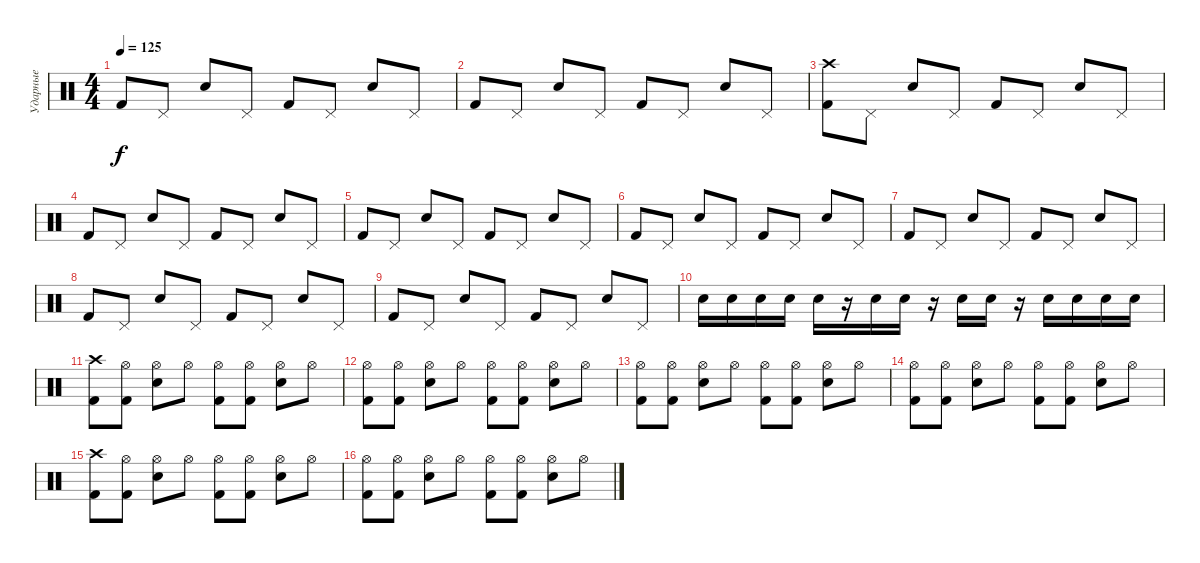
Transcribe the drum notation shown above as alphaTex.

\track ("Ударные" "Ударные") {instrument percussion}
\staff {score}
\articulation defaults
\ts (4 4)
\tempo 125
\clef neutral
\ks c "Kick (hit) 2".8{dy f} "Pedal Hi-Hat (hit)".8 "Snare (hit) 2".8 "Pedal Hi-Hat (hit)".8 "Kick (hit) 2".8 "Pedal Hi-Hat (hit)".8 "Snare (hit) 2".8 "Pedal Hi-Hat (hit)".8
|
"Kick (hit) 2".8 "Pedal Hi-Hat (hit)".8 "Snare (hit) 2".8 "Pedal Hi-Hat (hit)".8 "Kick (hit) 2".8 "Pedal Hi-Hat (hit)".8 "Snare (hit) 2".8 "Pedal Hi-Hat (hit)".8 |
("Crash high (hit)" "Kick (hit) 2").8 "Pedal Hi-Hat (hit)".8 "Snare (hit) 2".8 "Pedal Hi-Hat (hit)".8 "Kick (hit) 2".8 "Pedal Hi-Hat (hit)".8 "Snare (hit) 2".8 "Pedal Hi-Hat (hit)".8 |
"Kick (hit) 2".8 "Pedal Hi-Hat (hit)".8 "Snare (hit) 2".8 "Pedal Hi-Hat (hit)".8 "Kick (hit) 2".8 "Pedal Hi-Hat (hit)".8 "Snare (hit) 2".8 "Pedal Hi-Hat (hit)".8 |
"Kick (hit) 2".8 "Pedal Hi-Hat (hit)".8 "Snare (hit) 2".8 "Pedal Hi-Hat (hit)".8 "Kick (hit) 2".8 "Pedal Hi-Hat (hit)".8 "Snare (hit) 2".8 "Pedal Hi-Hat (hit)".8 |
"Kick (hit) 2".8 "Pedal Hi-Hat (hit)".8 "Snare (hit) 2".8 "Pedal Hi-Hat (hit)".8 "Kick (hit) 2".8 "Pedal Hi-Hat (hit)".8 "Snare (hit) 2".8 "Pedal Hi-Hat (hit)".8 |
"Kick (hit) 2".8 "Pedal Hi-Hat (hit)".8 "Snare (hit) 2".8 "Pedal Hi-Hat (hit)".8 "Kick (hit) 2".8 "Pedal Hi-Hat (hit)".8 "Snare (hit) 2".8 "Pedal Hi-Hat (hit)".8 |
"Kick (hit) 2".8 "Pedal Hi-Hat (hit)".8 "Snare (hit) 2".8 "Pedal Hi-Hat (hit)".8 "Kick (hit) 2".8 "Pedal Hi-Hat (hit)".8 "Snare (hit) 2".8 "Pedal Hi-Hat (hit)".8 |
"Kick (hit) 2".8 "Pedal Hi-Hat (hit)".8 "Snare (hit) 2".8 "Pedal Hi-Hat (hit)".8 "Kick (hit) 2".8 "Pedal Hi-Hat (hit)".8 "Snare (hit) 2".8 "Pedal Hi-Hat (hit)".8 |
"Snare (hit) 2".16 "Snare (hit) 2".16 "Snare (hit) 2".16 "Snare (hit) 2".16 "Snare (hit) 2".16 r.16 "Snare (hit) 2".16 "Snare (hit) 2".16 r.16 "Snare (hit) 2".16 "Snare (hit) 2".16 r.16 "Snare (hit) 2".16 "Snare (hit) 2".16 "Snare (hit) 2".16 "Snare (hit) 2".16 |
("Crash high (hit)" "Kick (hit) 2").8 ("Hi-Hat (open)" "Kick (hit) 2").8 ("Hi-Hat (open)" "Snare (hit) 2").8 "Hi-Hat (open)".8 ("Hi-Hat (open)" "Kick (hit) 2").8 ("Hi-Hat (open)" "Kick (hit) 2").8 ("Hi-Hat (open)" "Snare (hit) 2").8 "Hi-Hat (open)".8 |
("Hi-Hat (open)" "Kick (hit) 2").8 ("Hi-Hat (open)" "Kick (hit) 2").8 ("Hi-Hat (open)" "Snare (hit) 2").8 "Hi-Hat (open)".8 ("Hi-Hat (open)" "Kick (hit) 2").8 ("Hi-Hat (open)" "Kick (hit) 2").8 ("Hi-Hat (open)" "Snare (hit) 2").8 "Hi-Hat (open)".8 |
("Hi-Hat (open)" "Kick (hit) 2").8 ("Hi-Hat (open)" "Kick (hit) 2").8 ("Hi-Hat (open)" "Snare (hit) 2").8 "Hi-Hat (open)".8 ("Hi-Hat (open)" "Kick (hit) 2").8 ("Hi-Hat (open)" "Kick (hit) 2").8 ("Hi-Hat (open)" "Snare (hit) 2").8 "Hi-Hat (open)".8 |
("Hi-Hat (open)" "Kick (hit) 2").8 ("Hi-Hat (open)" "Kick (hit) 2").8 ("Hi-Hat (open)" "Snare (hit) 2").8 "Hi-Hat (open)".8 ("Hi-Hat (open)" "Kick (hit) 2").8 ("Hi-Hat (open)" "Kick (hit) 2").8 ("Hi-Hat (open)" "Snare (hit) 2").8 "Hi-Hat (open)".8 |
("Crash high (hit)" "Kick (hit) 2").8 ("Hi-Hat (open)" "Kick (hit) 2").8 ("Hi-Hat (open)" "Snare (hit) 2").8 "Hi-Hat (open)".8 ("Hi-Hat (open)" "Kick (hit) 2").8 ("Hi-Hat (open)" "Kick (hit) 2").8 ("Hi-Hat (open)" "Snare (hit) 2").8 "Hi-Hat (open)".8 |
("Hi-Hat (open)" "Kick (hit) 2").8 ("Hi-Hat (open)" "Kick (hit) 2").8 ("Hi-Hat (open)" "Snare (hit) 2").8 "Hi-Hat (open)".8 ("Hi-Hat (open)" "Kick (hit) 2").8 ("Hi-Hat (open)" "Kick (hit) 2").8 ("Hi-Hat (open)" "Snare (hit) 2").8 "Hi-Hat (open)".8
